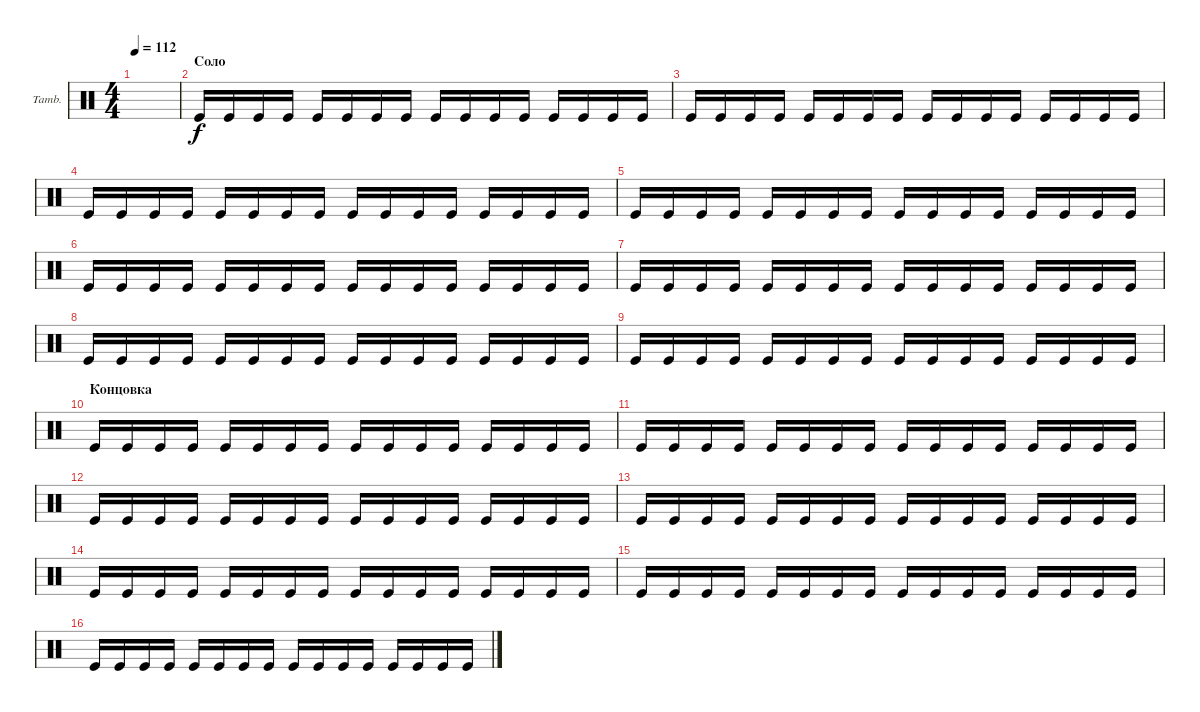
\defaultSystemsLayout 4
\bracketExtendMode groupsimilarinstruments
\firstSystemTrackNameOrientation horizontal
\otherSystemsTrackNameOrientation horizontal
\track ("Tambourine" "Tamb.") {instrument percussion}
\staff {score}
\articulation defaults
\ts (4 4)
\tempo 112
\clef neutral
\ks c
|
\section ("" "Соло")
"Kick (hit)".16 "Kick (hit)".16 "Kick (hit)".16 "Kick (hit)".16 "Kick (hit)".16 "Kick (hit)".16 "Kick (hit)".16 "Kick (hit)".16 "Kick (hit)".16 "Kick (hit)".16 "Kick (hit)".16 "Kick (hit)".16 "Kick (hit)".16 "Kick (hit)".16 "Kick (hit)".16 "Kick (hit)".16 |
"Kick (hit)".16 "Kick (hit)".16 "Kick (hit)".16 "Kick (hit)".16 "Kick (hit)".16 "Kick (hit)".16 "Kick (hit)".16 "Kick (hit)".16 "Kick (hit)".16 "Kick (hit)".16 "Kick (hit)".16 "Kick (hit)".16 "Kick (hit)".16 "Kick (hit)".16 "Kick (hit)".16 "Kick (hit)".16 |
"Kick (hit)".16 "Kick (hit)".16 "Kick (hit)".16 "Kick (hit)".16 "Kick (hit)".16 "Kick (hit)".16 "Kick (hit)".16 "Kick (hit)".16 "Kick (hit)".16 "Kick (hit)".16 "Kick (hit)".16 "Kick (hit)".16 "Kick (hit)".16 "Kick (hit)".16 "Kick (hit)".16 "Kick (hit)".16 |
"Kick (hit)".16 "Kick (hit)".16 "Kick (hit)".16 "Kick (hit)".16 "Kick (hit)".16 "Kick (hit)".16 "Kick (hit)".16 "Kick (hit)".16 "Kick (hit)".16 "Kick (hit)".16 "Kick (hit)".16 "Kick (hit)".16 "Kick (hit)".16 "Kick (hit)".16 "Kick (hit)".16 "Kick (hit)".16 |
"Kick (hit)".16 "Kick (hit)".16 "Kick (hit)".16 "Kick (hit)".16 "Kick (hit)".16 "Kick (hit)".16 "Kick (hit)".16 "Kick (hit)".16 "Kick (hit)".16 "Kick (hit)".16 "Kick (hit)".16 "Kick (hit)".16 "Kick (hit)".16 "Kick (hit)".16 "Kick (hit)".16 "Kick (hit)".16 |
"Kick (hit)".16 "Kick (hit)".16 "Kick (hit)".16 "Kick (hit)".16 "Kick (hit)".16 "Kick (hit)".16 "Kick (hit)".16 "Kick (hit)".16 "Kick (hit)".16 "Kick (hit)".16 "Kick (hit)".16 "Kick (hit)".16 "Kick (hit)".16 "Kick (hit)".16 "Kick (hit)".16 "Kick (hit)".16 |
"Kick (hit)".16 "Kick (hit)".16 "Kick (hit)".16 "Kick (hit)".16 "Kick (hit)".16 "Kick (hit)".16 "Kick (hit)".16 "Kick (hit)".16 "Kick (hit)".16 "Kick (hit)".16 "Kick (hit)".16 "Kick (hit)".16 "Kick (hit)".16 "Kick (hit)".16 "Kick (hit)".16 "Kick (hit)".16 |
"Kick (hit)".16 "Kick (hit)".16 "Kick (hit)".16 "Kick (hit)".16 "Kick (hit)".16 "Kick (hit)".16 "Kick (hit)".16 "Kick (hit)".16 "Kick (hit)".16 "Kick (hit)".16 "Kick (hit)".16 "Kick (hit)".16 "Kick (hit)".16 "Kick (hit)".16 "Kick (hit)".16 "Kick (hit)".16 |
\section ("" "Концовка")
"Kick (hit)".16 "Kick (hit)".16 "Kick (hit)".16 "Kick (hit)".16 "Kick (hit)".16 "Kick (hit)".16 "Kick (hit)".16 "Kick (hit)".16 "Kick (hit)".16 "Kick (hit)".16 "Kick (hit)".16 "Kick (hit)".16 "Kick (hit)".16 "Kick (hit)".16 "Kick (hit)".16 "Kick (hit)".16 |
"Kick (hit)".16 "Kick (hit)".16 "Kick (hit)".16 "Kick (hit)".16 "Kick (hit)".16 "Kick (hit)".16 "Kick (hit)".16 "Kick (hit)".16 "Kick (hit)".16 "Kick (hit)".16 "Kick (hit)".16 "Kick (hit)".16 "Kick (hit)".16 "Kick (hit)".16 "Kick (hit)".16 "Kick (hit)".16 |
"Kick (hit)".16 "Kick (hit)".16 "Kick (hit)".16 "Kick (hit)".16 "Kick (hit)".16 "Kick (hit)".16 "Kick (hit)".16 "Kick (hit)".16 "Kick (hit)".16 "Kick (hit)".16 "Kick (hit)".16 "Kick (hit)".16 "Kick (hit)".16 "Kick (hit)".16 "Kick (hit)".16 "Kick (hit)".16 |
"Kick (hit)".16 "Kick (hit)".16 "Kick (hit)".16 "Kick (hit)".16 "Kick (hit)".16 "Kick (hit)".16 "Kick (hit)".16 "Kick (hit)".16 "Kick (hit)".16 "Kick (hit)".16 "Kick (hit)".16 "Kick (hit)".16 "Kick (hit)".16 "Kick (hit)".16 "Kick (hit)".16 "Kick (hit)".16 |
"Kick (hit)".16 "Kick (hit)".16 "Kick (hit)".16 "Kick (hit)".16 "Kick (hit)".16 "Kick (hit)".16 "Kick (hit)".16 "Kick (hit)".16 "Kick (hit)".16 "Kick (hit)".16 "Kick (hit)".16 "Kick (hit)".16 "Kick (hit)".16 "Kick (hit)".16 "Kick (hit)".16 "Kick (hit)".16 |
"Kick (hit)".16 "Kick (hit)".16 "Kick (hit)".16 "Kick (hit)".16 "Kick (hit)".16 "Kick (hit)".16 "Kick (hit)".16 "Kick (hit)".16 "Kick (hit)".16 "Kick (hit)".16 "Kick (hit)".16 "Kick (hit)".16 "Kick (hit)".16 "Kick (hit)".16 "Kick (hit)".16 "Kick (hit)".16 |
"Kick (hit)".16 "Kick (hit)".16 "Kick (hit)".16 "Kick (hit)".16 "Kick (hit)".16 "Kick (hit)".16 "Kick (hit)".16 "Kick (hit)".16 "Kick (hit)".16 "Kick (hit)".16 "Kick (hit)".16 "Kick (hit)".16 "Kick (hit)".16 "Kick (hit)".16 "Kick (hit)".16 "Kick (hit)".16
